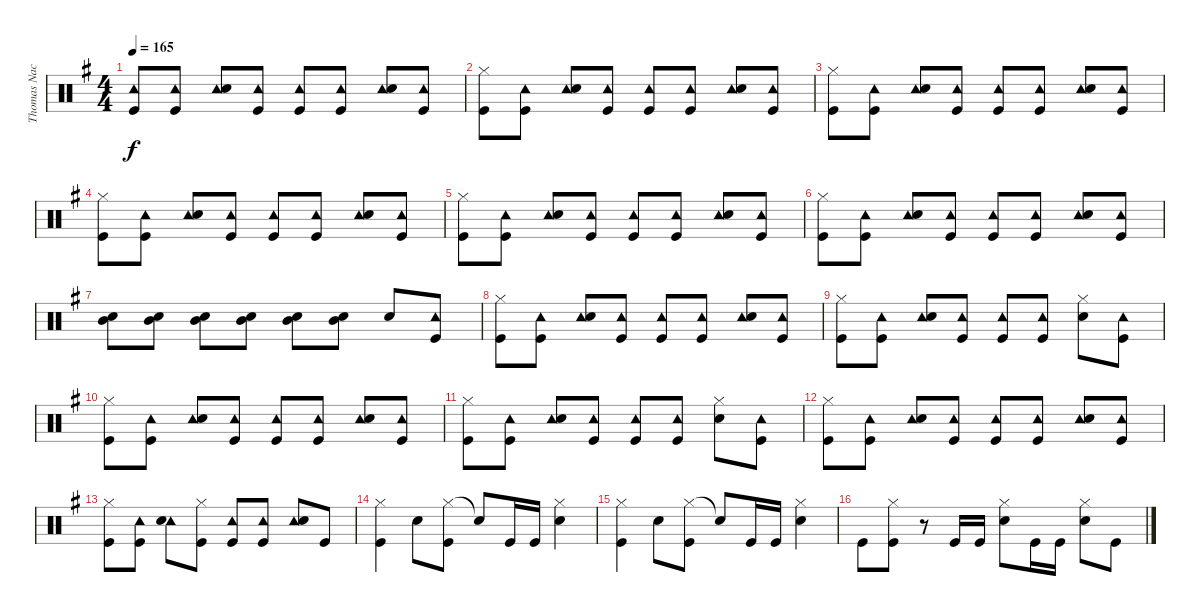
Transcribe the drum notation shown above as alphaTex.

\track ("Thomas Nack" "Thomas Nac") {instrument percussion}
\staff {score}
\articulation defaults
\ts (4 4)
\tempo 165
\clef neutral
\ks g
("Tambourine (hit)" "Kick (hit)").8{dy f} ("Tambourine (hit)" "Kick (hit)").8 ("Tambourine (hit)" "Snare (hit) 2").8 ("Tambourine (hit)" "Kick (hit)").8 ("Tambourine (hit)" "Kick (hit)").8 ("Tambourine (hit)" "Kick (hit)").8 ("Tambourine (hit)" "Snare (hit) 2").8 ("Tambourine (hit)" "Kick (hit)").8 |
("Hi-Hat (closed)" "Kick (hit)").8 ("Tambourine (hit)" "Kick (hit)").8 ("Tambourine (hit)" "Snare (hit) 2").8 ("Tambourine (hit)" "Kick (hit)").8 ("Tambourine (hit)" "Kick (hit)").8 ("Tambourine (hit)" "Kick (hit)").8 ("Tambourine (hit)" "Snare (hit) 2").8 ("Tambourine (hit)" "Kick (hit)").8 |
("Hi-Hat (closed)" "Kick (hit)").8 ("Tambourine (hit)" "Kick (hit)").8 ("Tambourine (hit)" "Snare (hit) 2").8 ("Tambourine (hit)" "Kick (hit)").8 ("Tambourine (hit)" "Kick (hit)").8 ("Tambourine (hit)" "Kick (hit)").8 ("Tambourine (hit)" "Snare (hit) 2").8 ("Tambourine (hit)" "Kick (hit)").8 |
("Hi-Hat (closed)" "Kick (hit)").8 ("Tambourine (hit)" "Kick (hit)").8 ("Tambourine (hit)" "Snare (hit) 2").8 ("Tambourine (hit)" "Kick (hit)").8 ("Tambourine (hit)" "Kick (hit)").8 ("Tambourine (hit)" "Kick (hit)").8 ("Tambourine (hit)" "Snare (hit) 2").8 ("Tambourine (hit)" "Kick (hit)").8 |
("Hi-Hat (closed)" "Kick (hit)").8 ("Tambourine (hit)" "Kick (hit)").8 ("Tambourine (hit)" "Snare (hit) 2").8 ("Tambourine (hit)" "Kick (hit)").8 ("Tambourine (hit)" "Kick (hit)").8 ("Tambourine (hit)" "Kick (hit)").8 ("Tambourine (hit)" "Snare (hit) 2").8 ("Tambourine (hit)" "Kick (hit)").8 |
("Hi-Hat (closed)" "Kick (hit)").8 ("Tambourine (hit)" "Kick (hit)").8 ("Tambourine (hit)" "Snare (hit) 2").8 ("Tambourine (hit)" "Kick (hit)").8 ("Tambourine (hit)" "Kick (hit)").8 ("Tambourine (hit)" "Kick (hit)").8 ("Tambourine (hit)" "Snare (hit) 2").8 ("Tambourine (hit)" "Kick (hit)").8 |
("Mid Tom (hit)" "Snare (hit) 2").8 ("Mid Tom (hit)" "Snare (hit) 2").8 ("Mid Tom (hit)" "Snare (hit) 2").8 ("Mid Tom (hit)" "Snare (hit) 2").8 ("Mid Tom (hit)" "Snare (hit) 2").8 ("Mid Tom (hit)" "Snare (hit) 2").8 "Snare (hit) 2".8 ("Tambourine (hit)" "Kick (hit)").8 |
("Hi-Hat (closed)" "Kick (hit)").8 ("Tambourine (hit)" "Kick (hit)").8 ("Tambourine (hit)" "Snare (hit) 2").8 ("Tambourine (hit)" "Kick (hit)").8 ("Tambourine (hit)" "Kick (hit)").8 ("Tambourine (hit)" "Kick (hit)").8 ("Tambourine (hit)" "Snare (hit) 2").8 ("Tambourine (hit)" "Kick (hit)").8 |
("Hi-Hat (closed)" "Kick (hit)").8 ("Tambourine (hit)" "Kick (hit)").8 ("Tambourine (hit)" "Snare (hit) 2").8 ("Tambourine (hit)" "Kick (hit)").8 ("Tambourine (hit)" "Kick (hit)").8 ("Tambourine (hit)" "Kick (hit)").8 ("Hi-Hat (closed)" "Snare (hit) 2").8 ("Tambourine (hit)" "Kick (hit)").8 |
("Hi-Hat (closed)" "Kick (hit)").8 ("Tambourine (hit)" "Kick (hit)").8 ("Tambourine (hit)" "Snare (hit) 2").8 ("Tambourine (hit)" "Kick (hit)").8 ("Tambourine (hit)" "Kick (hit)").8 ("Tambourine (hit)" "Kick (hit)").8 ("Tambourine (hit)" "Snare (hit) 2").8 ("Tambourine (hit)" "Kick (hit)").8 |
("Hi-Hat (closed)" "Kick (hit)").8 ("Tambourine (hit)" "Kick (hit)").8 ("Tambourine (hit)" "Snare (hit) 2").8 ("Tambourine (hit)" "Kick (hit)").8 ("Tambourine (hit)" "Kick (hit)").8 ("Tambourine (hit)" "Kick (hit)").8 ("Hi-Hat (closed)" "Snare (hit) 2").8 ("Tambourine (hit)" "Kick (hit)").8 |
("Hi-Hat (closed)" "Kick (hit)").8 ("Tambourine (hit)" "Kick (hit)").8 ("Tambourine (hit)" "Snare (hit) 2").8 ("Tambourine (hit)" "Kick (hit)").8 ("Tambourine (hit)" "Kick (hit)").8 ("Tambourine (hit)" "Kick (hit)").8 ("Tambourine (hit)" "Snare (hit) 2").8 ("Tambourine (hit)" "Kick (hit)").8 |
("Hi-Hat (closed)" "Kick (hit)").8 ("Tambourine (hit)" "Kick (hit)").8 ("Tambourine (hit)" "Snare (hit) 2").8 ("Hi-Hat (closed)" "Kick (hit)").8 ("Tambourine (hit)" "Kick (hit)").8 ("Tambourine (hit)" "Kick (hit)").8 ("Tambourine (hit)" "Snare (hit) 2").8 "Kick (hit)".8 |
("Hi-Hat (closed)" "Kick (hit)").4 "Snare (hit) 2".8 ("Hi-Hat (closed)" "Kick (hit)").8 "Snare (hit)"{t}.8 "Kick (hit)".16 "Kick (hit)".16 ("Hi-Hat (closed)" "Snare (hit) 2").4 |
("Hi-Hat (closed)" "Kick (hit)").4 "Snare (hit) 2".8 ("Hi-Hat (closed)" "Kick (hit)").8 "Snare (hit)"{t}.8 "Kick (hit)".16 "Kick (hit)".16 ("Hi-Hat (closed)" "Snare (hit) 2").4 |
"Kick (hit)".8 ("Hi-Hat (closed)" "Kick (hit)").8 r.8 "Kick (hit)".16 "Kick (hit)".16 ("Hi-Hat (closed)" "Snare (hit) 2").8 "Kick (hit)".16 "Kick (hit)".16 ("Hi-Hat (closed)" "Snare (hit) 2").8 "Kick (hit)".8
